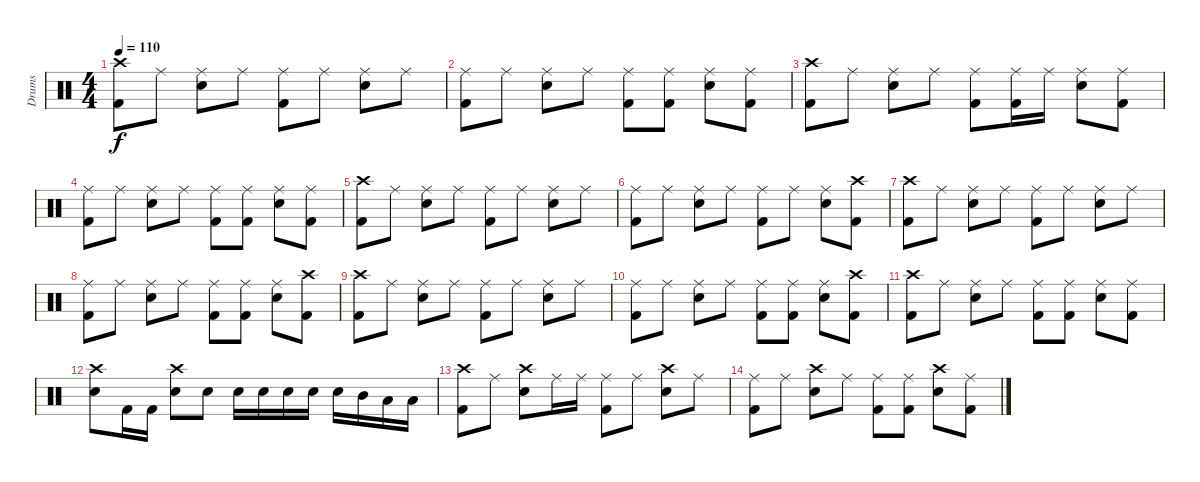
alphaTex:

\track ("Drums" "Drums") {instrument percussion}
\staff {score}
\articulation defaults
\ts (4 4)
\tempo 110
\clef neutral
\ks c
("Crash high (hit)" "Kick (hit) 2").8{dy f} "Ride (middle)".8 ("Ride (middle)" "Electric Snare (hit)").8 "Ride (middle)".8 ("Ride (middle)" "Kick (hit) 2").8 "Ride (middle)".8 ("Ride (middle)" "Electric Snare (hit)").8 "Ride (middle)".8 |
("Ride (middle)" "Kick (hit) 2").8 "Ride (middle)".8 ("Ride (middle)" "Electric Snare (hit)").8 "Ride (middle)".8 ("Ride (middle)" "Kick (hit) 2").8 ("Ride (middle)" "Kick (hit) 2").8 ("Ride (middle)" "Electric Snare (hit)").8 ("Ride (middle)" "Kick (hit) 2").8 |
("Crash high (hit)" "Kick (hit) 2").8 "Ride (middle)".8 ("Ride (middle)" "Electric Snare (hit)").8 "Ride (middle)".8 ("Ride (middle)" "Kick (hit) 2").8 ("Ride (middle)" "Kick (hit) 2").16 "Ride (middle)".16 ("Ride (middle)" "Electric Snare (hit)").8 ("Ride (middle)" "Kick (hit) 2").8 |
("Ride (middle)" "Kick (hit) 2").8 "Ride (middle)".8 ("Ride (middle)" "Electric Snare (hit)").8 "Ride (middle)".8 ("Ride (middle)" "Kick (hit) 2").8 ("Ride (middle)" "Kick (hit) 2").8 ("Ride (middle)" "Electric Snare (hit)").8 ("Ride (middle)" "Kick (hit) 2").8 |
("Crash high (hit)" "Kick (hit) 2").8 "Ride (middle)".8 ("Ride (middle)" "Electric Snare (hit)").8 "Ride (middle)".8 ("Ride (middle)" "Kick (hit) 2").8 "Ride (middle)".8 ("Ride (middle)" "Electric Snare (hit)").8 "Ride (middle)".8 |
("Ride (middle)" "Kick (hit) 2").8 "Ride (middle)".8 ("Ride (middle)" "Electric Snare (hit)").8 "Ride (middle)".8 ("Ride (middle)" "Kick (hit) 2").8 "Ride (middle)".8 ("Ride (middle)" "Electric Snare (hit)").8 ("Crash high (hit)" "Kick (hit) 2").8 |
("Crash high (hit)" "Kick (hit) 2").8 "Ride (middle)".8 ("Ride (middle)" "Electric Snare (hit)").8 "Ride (middle)".8 ("Ride (middle)" "Kick (hit) 2").8 "Ride (middle)".8 ("Ride (middle)" "Electric Snare (hit)").8 "Ride (middle)".8 |
("Ride (middle)" "Kick (hit) 2").8 "Ride (middle)".8 ("Ride (middle)" "Electric Snare (hit)").8 "Ride (middle)".8 ("Ride (middle)" "Kick (hit) 2").8 ("Ride (middle)" "Kick (hit) 2").8 ("Ride (middle)" "Electric Snare (hit)").8 ("Crash high (hit)" "Kick (hit) 2").8 |
("Crash high (hit)" "Kick (hit) 2").8 "Ride (middle)".8 ("Ride (middle)" "Electric Snare (hit)").8 "Ride (middle)".8 ("Ride (middle)" "Kick (hit) 2").8 "Ride (middle)".8 ("Ride (middle)" "Electric Snare (hit)").8 "Ride (middle)".8 |
("Ride (middle)" "Kick (hit) 2").8 "Ride (middle)".8 ("Ride (middle)" "Electric Snare (hit)").8 "Ride (middle)".8 ("Ride (middle)" "Kick (hit) 2").8 ("Ride (middle)" "Kick (hit) 2").8 ("Ride (middle)" "Electric Snare (hit)").8 ("Crash high (hit)" "Kick (hit) 2").8 |
("Crash high (hit)" "Kick (hit) 2").8 "Ride (middle)".8 ("Ride (middle)" "Electric Snare (hit)").8 "Ride (middle)".8 ("Ride (middle)" "Kick (hit) 2").8 ("Ride (middle)" "Kick (hit) 2").8 ("Ride (middle)" "Electric Snare (hit)").8 ("Ride (middle)" "Kick (hit) 2").8 |
("Crash high (hit)" "Electric Snare (hit)").8 "Kick (hit) 2".16 "Kick (hit) 2".16 ("Crash high (hit)" "Electric Snare (hit)").8 "Electric Snare (hit)".8 "Electric Snare (hit)".16 "Electric Snare (hit)".16 "Electric Snare (hit)".16 "Electric Snare (hit)".16 "Electric Snare (hit)".16 "Mid Tom (hit)".16 "Low Tom (hit)".16 "Low Tom (hit)".16 |
("Crash high (hit)" "Kick (hit) 2").8 "Ride (middle)".8 ("Crash high (hit)" "Electric Snare (hit)").8 "Ride (middle)".16 "Ride (middle)".16 ("Ride (middle)" "Kick (hit) 2").8 "Ride (middle)".8 ("Crash high (hit)" "Electric Snare (hit)").8 "Ride (middle)".8 |
("Ride (middle)" "Kick (hit) 2").8 "Ride (middle)".8 ("Crash high (hit)" "Electric Snare (hit)").8 "Ride (middle)".8 ("Ride (middle)" "Kick (hit) 2").8 ("Ride (middle)" "Kick (hit) 2").8 ("Crash high (hit)" "Electric Snare (hit)").8 ("Ride (middle)" "Kick (hit) 2").8
